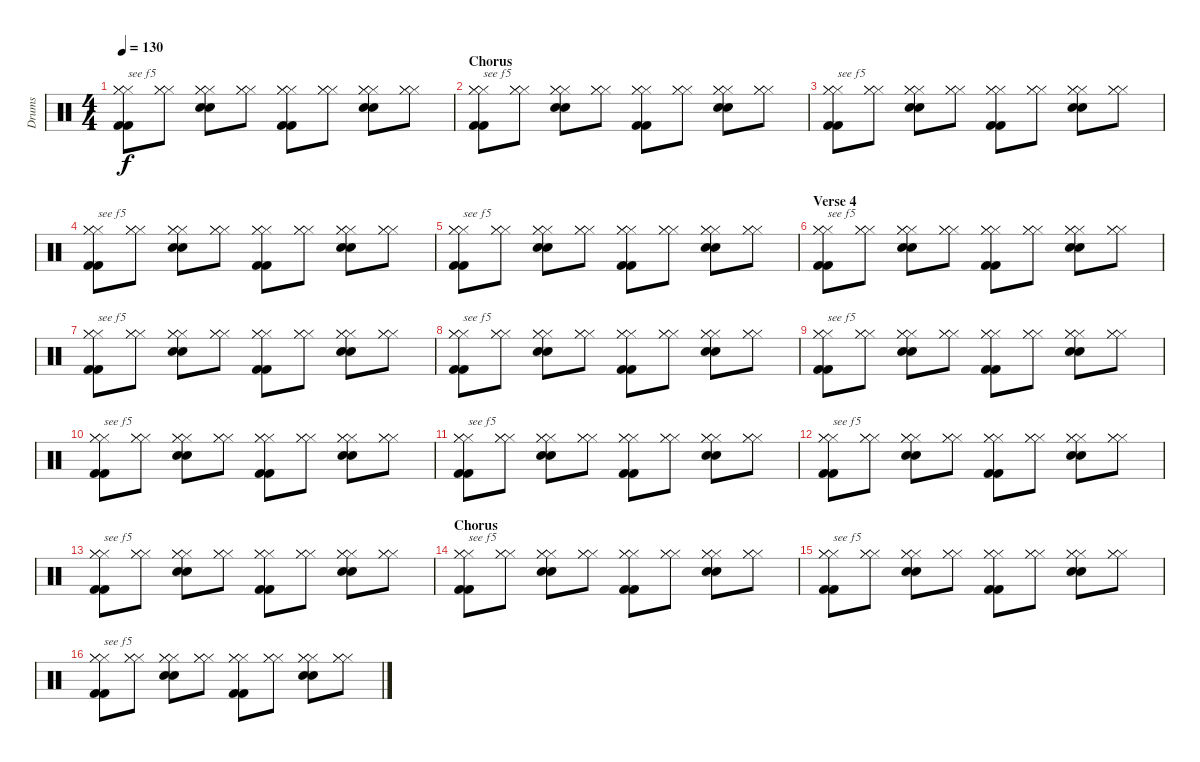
\track ("Drums" "Drums") {instrument percussion}
\staff {score}
\articulation defaults
\ts (4 4)
\tempo 130
\clef neutral
\ks c
("Hi-Hat (closed)" "Hi-Hat (closed)" "Hi-Hat (closed)" "Kick (hit) 2" "Kick (hit) 2").8{txt "see f5" dy f} ("Hi-Hat (closed)" "Hi-Hat (closed)" "Hi-Hat (closed)").8 ("Hi-Hat (closed)" "Hi-Hat (closed)" "Hi-Hat (closed)" "Electric Snare (hit)" "Electric Snare (hit)").8 ("Hi-Hat (closed)" "Hi-Hat (closed)" "Hi-Hat (closed)").8 ("Hi-Hat (closed)" "Hi-Hat (closed)" "Hi-Hat (closed)" "Kick (hit) 2" "Kick (hit) 2").8 ("Hi-Hat (closed)" "Hi-Hat (closed)" "Hi-Hat (closed)").8 ("Hi-Hat (closed)" "Hi-Hat (closed)" "Hi-Hat (closed)" "Electric Snare (hit)" "Electric Snare (hit)").8 ("Hi-Hat (closed)" "Hi-Hat (closed)" "Hi-Hat (closed)").8 |
\section ("" "Chorus")
("Hi-Hat (closed)" "Hi-Hat (closed)" "Hi-Hat (closed)" "Kick (hit) 2" "Kick (hit) 2").8{txt "see f5"} ("Hi-Hat (closed)" "Hi-Hat (closed)" "Hi-Hat (closed)").8 ("Hi-Hat (closed)" "Hi-Hat (closed)" "Hi-Hat (closed)" "Electric Snare (hit)" "Electric Snare (hit)").8 ("Hi-Hat (closed)" "Hi-Hat (closed)" "Hi-Hat (closed)").8 ("Hi-Hat (closed)" "Hi-Hat (closed)" "Hi-Hat (closed)" "Kick (hit) 2" "Kick (hit) 2").8 ("Hi-Hat (closed)" "Hi-Hat (closed)" "Hi-Hat (closed)").8 ("Hi-Hat (closed)" "Hi-Hat (closed)" "Hi-Hat (closed)" "Electric Snare (hit)" "Electric Snare (hit)").8 ("Hi-Hat (closed)" "Hi-Hat (closed)" "Hi-Hat (closed)").8 |
("Hi-Hat (closed)" "Hi-Hat (closed)" "Hi-Hat (closed)" "Kick (hit) 2" "Kick (hit) 2").8{txt "see f5"} ("Hi-Hat (closed)" "Hi-Hat (closed)" "Hi-Hat (closed)").8 ("Hi-Hat (closed)" "Hi-Hat (closed)" "Hi-Hat (closed)" "Electric Snare (hit)" "Electric Snare (hit)").8 ("Hi-Hat (closed)" "Hi-Hat (closed)" "Hi-Hat (closed)").8 ("Hi-Hat (closed)" "Hi-Hat (closed)" "Hi-Hat (closed)" "Kick (hit) 2" "Kick (hit) 2").8 ("Hi-Hat (closed)" "Hi-Hat (closed)" "Hi-Hat (closed)").8 ("Hi-Hat (closed)" "Hi-Hat (closed)" "Hi-Hat (closed)" "Electric Snare (hit)" "Electric Snare (hit)").8 ("Hi-Hat (closed)" "Hi-Hat (closed)" "Hi-Hat (closed)").8 |
("Hi-Hat (closed)" "Hi-Hat (closed)" "Hi-Hat (closed)" "Kick (hit) 2" "Kick (hit) 2").8{txt "see f5"} ("Hi-Hat (closed)" "Hi-Hat (closed)" "Hi-Hat (closed)").8 ("Hi-Hat (closed)" "Hi-Hat (closed)" "Hi-Hat (closed)" "Electric Snare (hit)" "Electric Snare (hit)").8 ("Hi-Hat (closed)" "Hi-Hat (closed)" "Hi-Hat (closed)").8 ("Hi-Hat (closed)" "Hi-Hat (closed)" "Hi-Hat (closed)" "Kick (hit) 2" "Kick (hit) 2").8 ("Hi-Hat (closed)" "Hi-Hat (closed)" "Hi-Hat (closed)").8 ("Hi-Hat (closed)" "Hi-Hat (closed)" "Hi-Hat (closed)" "Electric Snare (hit)" "Electric Snare (hit)").8 ("Hi-Hat (closed)" "Hi-Hat (closed)" "Hi-Hat (closed)").8 |
("Hi-Hat (closed)" "Hi-Hat (closed)" "Hi-Hat (closed)" "Kick (hit) 2" "Kick (hit) 2").8{txt "see f5"} ("Hi-Hat (closed)" "Hi-Hat (closed)" "Hi-Hat (closed)").8 ("Hi-Hat (closed)" "Hi-Hat (closed)" "Hi-Hat (closed)" "Electric Snare (hit)" "Electric Snare (hit)").8 ("Hi-Hat (closed)" "Hi-Hat (closed)" "Hi-Hat (closed)").8 ("Hi-Hat (closed)" "Hi-Hat (closed)" "Hi-Hat (closed)" "Kick (hit) 2" "Kick (hit) 2").8 ("Hi-Hat (closed)" "Hi-Hat (closed)" "Hi-Hat (closed)").8 ("Hi-Hat (closed)" "Hi-Hat (closed)" "Hi-Hat (closed)" "Electric Snare (hit)" "Electric Snare (hit)").8 ("Hi-Hat (closed)" "Hi-Hat (closed)" "Hi-Hat (closed)").8 |
\section ("" "Verse 4")
("Hi-Hat (closed)" "Hi-Hat (closed)" "Hi-Hat (closed)" "Kick (hit) 2" "Kick (hit) 2").8{txt "see f5"} ("Hi-Hat (closed)" "Hi-Hat (closed)" "Hi-Hat (closed)").8 ("Hi-Hat (closed)" "Hi-Hat (closed)" "Hi-Hat (closed)" "Electric Snare (hit)" "Electric Snare (hit)").8 ("Hi-Hat (closed)" "Hi-Hat (closed)" "Hi-Hat (closed)").8 ("Hi-Hat (closed)" "Hi-Hat (closed)" "Hi-Hat (closed)" "Kick (hit) 2" "Kick (hit) 2").8 ("Hi-Hat (closed)" "Hi-Hat (closed)" "Hi-Hat (closed)").8 ("Hi-Hat (closed)" "Hi-Hat (closed)" "Hi-Hat (closed)" "Electric Snare (hit)" "Electric Snare (hit)").8 ("Hi-Hat (closed)" "Hi-Hat (closed)" "Hi-Hat (closed)").8 |
("Hi-Hat (closed)" "Hi-Hat (closed)" "Hi-Hat (closed)" "Kick (hit) 2" "Kick (hit) 2").8{txt "see f5"} ("Hi-Hat (closed)" "Hi-Hat (closed)" "Hi-Hat (closed)").8 ("Hi-Hat (closed)" "Hi-Hat (closed)" "Hi-Hat (closed)" "Electric Snare (hit)" "Electric Snare (hit)").8 ("Hi-Hat (closed)" "Hi-Hat (closed)" "Hi-Hat (closed)").8 ("Hi-Hat (closed)" "Hi-Hat (closed)" "Hi-Hat (closed)" "Kick (hit) 2" "Kick (hit) 2").8 ("Hi-Hat (closed)" "Hi-Hat (closed)" "Hi-Hat (closed)").8 ("Hi-Hat (closed)" "Hi-Hat (closed)" "Hi-Hat (closed)" "Electric Snare (hit)" "Electric Snare (hit)").8 ("Hi-Hat (closed)" "Hi-Hat (closed)" "Hi-Hat (closed)").8 |
("Hi-Hat (closed)" "Hi-Hat (closed)" "Hi-Hat (closed)" "Kick (hit) 2" "Kick (hit) 2").8{txt "see f5"} ("Hi-Hat (closed)" "Hi-Hat (closed)" "Hi-Hat (closed)").8 ("Hi-Hat (closed)" "Hi-Hat (closed)" "Hi-Hat (closed)" "Electric Snare (hit)" "Electric Snare (hit)").8 ("Hi-Hat (closed)" "Hi-Hat (closed)" "Hi-Hat (closed)").8 ("Hi-Hat (closed)" "Hi-Hat (closed)" "Hi-Hat (closed)" "Kick (hit) 2" "Kick (hit) 2").8 ("Hi-Hat (closed)" "Hi-Hat (closed)" "Hi-Hat (closed)").8 ("Hi-Hat (closed)" "Hi-Hat (closed)" "Hi-Hat (closed)" "Electric Snare (hit)" "Electric Snare (hit)").8 ("Hi-Hat (closed)" "Hi-Hat (closed)" "Hi-Hat (closed)").8 |
("Hi-Hat (closed)" "Hi-Hat (closed)" "Hi-Hat (closed)" "Kick (hit) 2" "Kick (hit) 2").8{txt "see f5"} ("Hi-Hat (closed)" "Hi-Hat (closed)" "Hi-Hat (closed)").8 ("Hi-Hat (closed)" "Hi-Hat (closed)" "Hi-Hat (closed)" "Electric Snare (hit)" "Electric Snare (hit)").8 ("Hi-Hat (closed)" "Hi-Hat (closed)" "Hi-Hat (closed)").8 ("Hi-Hat (closed)" "Hi-Hat (closed)" "Hi-Hat (closed)" "Kick (hit) 2" "Kick (hit) 2").8 ("Hi-Hat (closed)" "Hi-Hat (closed)" "Hi-Hat (closed)").8 ("Hi-Hat (closed)" "Hi-Hat (closed)" "Hi-Hat (closed)" "Electric Snare (hit)" "Electric Snare (hit)").8 ("Hi-Hat (closed)" "Hi-Hat (closed)" "Hi-Hat (closed)").8 |
("Hi-Hat (closed)" "Hi-Hat (closed)" "Hi-Hat (closed)" "Kick (hit) 2" "Kick (hit) 2").8{txt "see f5"} ("Hi-Hat (closed)" "Hi-Hat (closed)" "Hi-Hat (closed)").8 ("Hi-Hat (closed)" "Hi-Hat (closed)" "Hi-Hat (closed)" "Electric Snare (hit)" "Electric Snare (hit)").8 ("Hi-Hat (closed)" "Hi-Hat (closed)" "Hi-Hat (closed)").8 ("Hi-Hat (closed)" "Hi-Hat (closed)" "Hi-Hat (closed)" "Kick (hit) 2" "Kick (hit) 2").8 ("Hi-Hat (closed)" "Hi-Hat (closed)" "Hi-Hat (closed)").8 ("Hi-Hat (closed)" "Hi-Hat (closed)" "Hi-Hat (closed)" "Electric Snare (hit)" "Electric Snare (hit)").8 ("Hi-Hat (closed)" "Hi-Hat (closed)" "Hi-Hat (closed)").8 |
("Hi-Hat (closed)" "Hi-Hat (closed)" "Hi-Hat (closed)" "Kick (hit) 2" "Kick (hit) 2").8{txt "see f5"} ("Hi-Hat (closed)" "Hi-Hat (closed)" "Hi-Hat (closed)").8 ("Hi-Hat (closed)" "Hi-Hat (closed)" "Hi-Hat (closed)" "Electric Snare (hit)" "Electric Snare (hit)").8 ("Hi-Hat (closed)" "Hi-Hat (closed)" "Hi-Hat (closed)").8 ("Hi-Hat (closed)" "Hi-Hat (closed)" "Hi-Hat (closed)" "Kick (hit) 2" "Kick (hit) 2").8 ("Hi-Hat (closed)" "Hi-Hat (closed)" "Hi-Hat (closed)").8 ("Hi-Hat (closed)" "Hi-Hat (closed)" "Hi-Hat (closed)" "Electric Snare (hit)" "Electric Snare (hit)").8 ("Hi-Hat (closed)" "Hi-Hat (closed)" "Hi-Hat (closed)").8 |
("Hi-Hat (closed)" "Hi-Hat (closed)" "Hi-Hat (closed)" "Kick (hit) 2" "Kick (hit) 2").8{txt "see f5"} ("Hi-Hat (closed)" "Hi-Hat (closed)" "Hi-Hat (closed)").8 ("Hi-Hat (closed)" "Hi-Hat (closed)" "Hi-Hat (closed)" "Electric Snare (hit)" "Electric Snare (hit)").8 ("Hi-Hat (closed)" "Hi-Hat (closed)" "Hi-Hat (closed)").8 ("Hi-Hat (closed)" "Hi-Hat (closed)" "Hi-Hat (closed)" "Kick (hit) 2" "Kick (hit) 2").8 ("Hi-Hat (closed)" "Hi-Hat (closed)" "Hi-Hat (closed)").8 ("Hi-Hat (closed)" "Hi-Hat (closed)" "Hi-Hat (closed)" "Electric Snare (hit)" "Electric Snare (hit)").8 ("Hi-Hat (closed)" "Hi-Hat (closed)" "Hi-Hat (closed)").8 |
("Hi-Hat (closed)" "Hi-Hat (closed)" "Hi-Hat (closed)" "Kick (hit) 2" "Kick (hit) 2").8{txt "see f5"} ("Hi-Hat (closed)" "Hi-Hat (closed)" "Hi-Hat (closed)").8 ("Hi-Hat (closed)" "Hi-Hat (closed)" "Hi-Hat (closed)" "Electric Snare (hit)" "Electric Snare (hit)").8 ("Hi-Hat (closed)" "Hi-Hat (closed)" "Hi-Hat (closed)").8 ("Hi-Hat (closed)" "Hi-Hat (closed)" "Hi-Hat (closed)" "Kick (hit) 2" "Kick (hit) 2").8 ("Hi-Hat (closed)" "Hi-Hat (closed)" "Hi-Hat (closed)").8 ("Hi-Hat (closed)" "Hi-Hat (closed)" "Hi-Hat (closed)" "Electric Snare (hit)" "Electric Snare (hit)").8 ("Hi-Hat (closed)" "Hi-Hat (closed)" "Hi-Hat (closed)").8 |
\section ("" "Chorus")
("Hi-Hat (closed)" "Hi-Hat (closed)" "Hi-Hat (closed)" "Kick (hit) 2" "Kick (hit) 2").8{txt "see f5"} ("Hi-Hat (closed)" "Hi-Hat (closed)" "Hi-Hat (closed)").8 ("Hi-Hat (closed)" "Hi-Hat (closed)" "Hi-Hat (closed)" "Electric Snare (hit)" "Electric Snare (hit)").8 ("Hi-Hat (closed)" "Hi-Hat (closed)" "Hi-Hat (closed)").8 ("Hi-Hat (closed)" "Hi-Hat (closed)" "Hi-Hat (closed)" "Kick (hit) 2" "Kick (hit) 2").8 ("Hi-Hat (closed)" "Hi-Hat (closed)" "Hi-Hat (closed)").8 ("Hi-Hat (closed)" "Hi-Hat (closed)" "Hi-Hat (closed)" "Electric Snare (hit)" "Electric Snare (hit)").8 ("Hi-Hat (closed)" "Hi-Hat (closed)" "Hi-Hat (closed)").8 |
("Hi-Hat (closed)" "Hi-Hat (closed)" "Hi-Hat (closed)" "Kick (hit) 2" "Kick (hit) 2").8{txt "see f5"} ("Hi-Hat (closed)" "Hi-Hat (closed)" "Hi-Hat (closed)").8 ("Hi-Hat (closed)" "Hi-Hat (closed)" "Hi-Hat (closed)" "Electric Snare (hit)" "Electric Snare (hit)").8 ("Hi-Hat (closed)" "Hi-Hat (closed)" "Hi-Hat (closed)").8 ("Hi-Hat (closed)" "Hi-Hat (closed)" "Hi-Hat (closed)" "Kick (hit) 2" "Kick (hit) 2").8 ("Hi-Hat (closed)" "Hi-Hat (closed)" "Hi-Hat (closed)").8 ("Hi-Hat (closed)" "Hi-Hat (closed)" "Hi-Hat (closed)" "Electric Snare (hit)" "Electric Snare (hit)").8 ("Hi-Hat (closed)" "Hi-Hat (closed)" "Hi-Hat (closed)").8 |
("Hi-Hat (closed)" "Hi-Hat (closed)" "Hi-Hat (closed)" "Kick (hit) 2" "Kick (hit) 2").8{txt "see f5"} ("Hi-Hat (closed)" "Hi-Hat (closed)" "Hi-Hat (closed)").8 ("Hi-Hat (closed)" "Hi-Hat (closed)" "Hi-Hat (closed)" "Electric Snare (hit)" "Electric Snare (hit)").8 ("Hi-Hat (closed)" "Hi-Hat (closed)" "Hi-Hat (closed)").8 ("Hi-Hat (closed)" "Hi-Hat (closed)" "Hi-Hat (closed)" "Kick (hit) 2" "Kick (hit) 2").8 ("Hi-Hat (closed)" "Hi-Hat (closed)" "Hi-Hat (closed)").8 ("Hi-Hat (closed)" "Hi-Hat (closed)" "Hi-Hat (closed)" "Electric Snare (hit)" "Electric Snare (hit)").8 ("Hi-Hat (closed)" "Hi-Hat (closed)" "Hi-Hat (closed)").8
